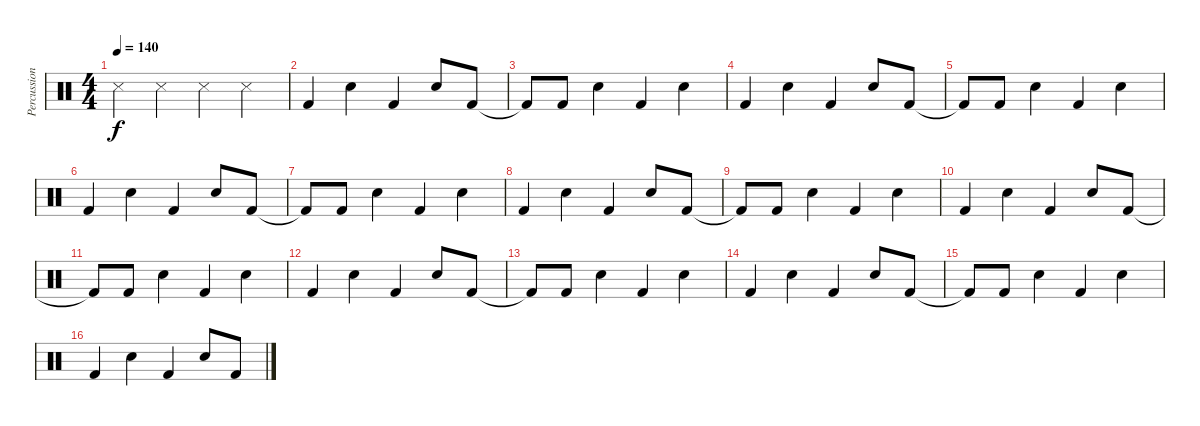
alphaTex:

\track ("Percussion" "Percussion") {instrument percussion}
\staff {score}
\articulation defaults
\ts (4 4)
\tempo 140
\clef neutral
\ks c "Snare (side stick) 3".4{dy f} "Snare (side stick) 3".4 "Snare (side stick) 3".4 "Snare (side stick) 3".4
|
"Kick (hit) 2".4 "Electric Snare (hit)".4 "Kick (hit) 2".4 "Electric Snare (hit)".8 "Kick (hit) 2".8 |
"Kick (hit) 2"{t}.8 "Kick (hit) 2".8 "Electric Snare (hit)".4 "Kick (hit) 2".4 "Electric Snare (hit)".4 |
"Kick (hit) 2".4 "Electric Snare (hit)".4 "Kick (hit) 2".4 "Electric Snare (hit)".8 "Kick (hit) 2".8 |
"Kick (hit) 2"{t}.8 "Kick (hit) 2".8 "Electric Snare (hit)".4 "Kick (hit) 2".4 "Electric Snare (hit)".4 |
"Kick (hit) 2".4 "Electric Snare (hit)".4 "Kick (hit) 2".4 "Electric Snare (hit)".8 "Kick (hit) 2".8 |
"Kick (hit) 2"{t}.8 "Kick (hit) 2".8 "Electric Snare (hit)".4 "Kick (hit) 2".4 "Electric Snare (hit)".4 |
"Kick (hit) 2".4 "Electric Snare (hit)".4 "Kick (hit) 2".4 "Electric Snare (hit)".8 "Kick (hit) 2".8 |
"Kick (hit) 2"{t}.8 "Kick (hit) 2".8 "Electric Snare (hit)".4 "Kick (hit) 2".4 "Electric Snare (hit)".4 |
"Kick (hit) 2".4 "Electric Snare (hit)".4 "Kick (hit) 2".4 "Electric Snare (hit)".8 "Kick (hit) 2".8 |
"Kick (hit) 2"{t}.8 "Kick (hit) 2".8 "Electric Snare (hit)".4 "Kick (hit) 2".4 "Electric Snare (hit)".4 |
"Kick (hit) 2".4 "Electric Snare (hit)".4 "Kick (hit) 2".4 "Electric Snare (hit)".8 "Kick (hit) 2".8 |
"Kick (hit) 2"{t}.8 "Kick (hit) 2".8 "Electric Snare (hit)".4 "Kick (hit) 2".4 "Electric Snare (hit)".4 |
"Kick (hit) 2".4 "Electric Snare (hit)".4 "Kick (hit) 2".4 "Electric Snare (hit)".8 "Kick (hit) 2".8 |
"Kick (hit) 2"{t}.8 "Kick (hit) 2".8 "Electric Snare (hit)".4 "Kick (hit) 2".4 "Electric Snare (hit)".4 |
"Kick (hit) 2".4 "Electric Snare (hit)".4 "Kick (hit) 2".4 "Electric Snare (hit)".8 "Kick (hit) 2".8
